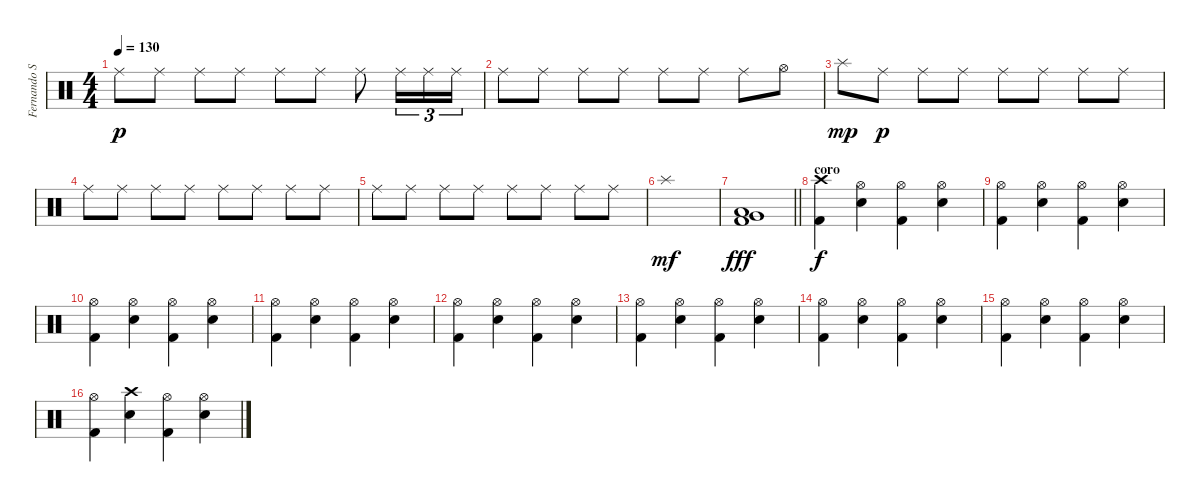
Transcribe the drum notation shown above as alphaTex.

\track ("Fernando Scarcella" "Fernando S") {instrument percussion}
\staff {score}
\articulation defaults
\ts (4 4)
\tempo 130
\clef neutral
\ks c "Ride (middle)".8{dy p} "Ride (middle)".8 "Ride (middle)".8 "Ride (middle)".8 "Ride (middle)".8 "Ride (middle)".8 "Ride (middle)".8 "Ride (middle)".16{tu (3 2)} "Ride (middle)".16{tu (3 2)} "Ride (middle)".16{tu (3 2)}
|
"Ride (middle)".8 "Ride (middle)".8 "Ride (middle)".8 "Ride (middle)".8 "Ride (middle)".8 "Ride (middle)".8 "Ride (middle)".8 "Hi-Hat (open)".8 |
"Splash (hit)".8{dy mp} "Ride (middle)".8{dy p} "Ride (middle)".8 "Ride (middle)".8 "Ride (middle)".8 "Ride (middle)".8 "Ride (middle)".8 "Ride (middle)".8 |
"Ride (middle)".8 "Ride (middle)".8 "Ride (middle)".8 "Ride (middle)".8 "Ride (middle)".8 "Ride (middle)".8 "Ride (middle)".8 "Ride (middle)".8 |
"Ride (middle)".8 "Ride (middle)".8 "Ride (middle)".8 "Ride (middle)".8 "Ride (middle)".8 "Ride (middle)".8 "Ride (middle)".8 "Ride (middle)".8 |
"Splash (hit)".1{dy mf} |
\barLineRight lightlight
("Very Low Tom (hit)" "Low Floor Tom (hit)" "Kick (hit) 2").1{dy fff} |
\section ("" "coro")
("Crash high (hit)" "Kick (hit) 2").4{dy f} ("Hi-Hat (open)" "Snare (hit) 2").4 ("Hi-Hat (open)" "Kick (hit) 2").4 ("Hi-Hat (open)" "Snare (hit) 2").4 |
("Hi-Hat (open)" "Kick (hit) 2").4 ("Hi-Hat (open)" "Snare (hit) 2").4 ("Hi-Hat (open)" "Kick (hit) 2").4 ("Hi-Hat (open)" "Snare (hit) 2").4 |
("Hi-Hat (open)" "Kick (hit) 2").4 ("Hi-Hat (open)" "Snare (hit) 2").4 ("Hi-Hat (open)" "Kick (hit) 2").4 ("Hi-Hat (open)" "Snare (hit) 2").4 |
("Hi-Hat (open)" "Kick (hit) 2").4 ("Hi-Hat (open)" "Snare (hit) 2").4 ("Hi-Hat (open)" "Kick (hit) 2").4 ("Hi-Hat (open)" "Snare (hit) 2").4 |
("Hi-Hat (open)" "Kick (hit) 2").4 ("Hi-Hat (open)" "Snare (hit) 2").4 ("Hi-Hat (open)" "Kick (hit) 2").4 ("Hi-Hat (open)" "Snare (hit) 2").4 |
("Hi-Hat (open)" "Kick (hit) 2").4 ("Hi-Hat (open)" "Snare (hit) 2").4 ("Hi-Hat (open)" "Kick (hit) 2").4 ("Hi-Hat (open)" "Snare (hit) 2").4 |
("Hi-Hat (open)" "Kick (hit) 2").4 ("Hi-Hat (open)" "Snare (hit) 2").4 ("Hi-Hat (open)" "Kick (hit) 2").4 ("Hi-Hat (open)" "Snare (hit) 2").4 |
("Hi-Hat (open)" "Kick (hit) 2").4 ("Hi-Hat (open)" "Snare (hit) 2").4 ("Hi-Hat (open)" "Kick (hit) 2").4 ("Hi-Hat (open)" "Snare (hit) 2").4 |
("Hi-Hat (open)" "Kick (hit) 2").4 ("Crash high (hit)" "Snare (hit) 2").4 ("Hi-Hat (open)" "Kick (hit) 2").4 ("Hi-Hat (open)" "Snare (hit) 2").4
